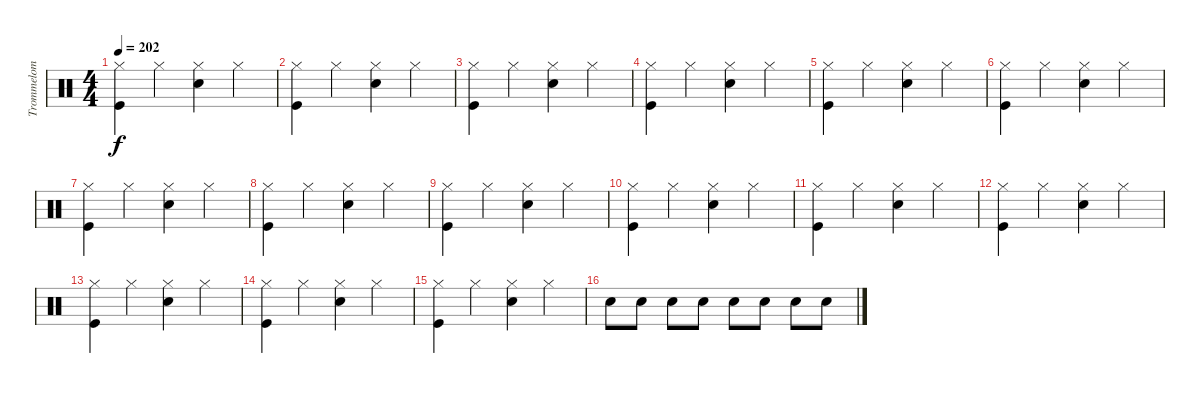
\track ("Trommelom" "Trommelom") {instrument percussion}
\staff {score}
\articulation defaults
\ts (4 4)
\tempo 202
\clef neutral
\ks c
("Kick (hit)" "Hi-Hat (closed)").4{dy f} "Hi-Hat (closed)".4 ("Electric Snare (hit)" "Hi-Hat (closed)").4 "Hi-Hat (closed)".4 |
("Kick (hit)" "Hi-Hat (closed)").4 "Hi-Hat (closed)".4 ("Electric Snare (hit)" "Hi-Hat (closed)").4 "Hi-Hat (closed)".4 |
("Kick (hit)" "Hi-Hat (closed)").4 "Hi-Hat (closed)".4 ("Electric Snare (hit)" "Hi-Hat (closed)").4 "Hi-Hat (closed)".4 |
("Kick (hit)" "Hi-Hat (closed)").4 "Hi-Hat (closed)".4 ("Electric Snare (hit)" "Hi-Hat (closed)").4 "Hi-Hat (closed)".4 |
("Kick (hit)" "Hi-Hat (closed)").4 "Hi-Hat (closed)".4 ("Electric Snare (hit)" "Hi-Hat (closed)").4 "Hi-Hat (closed)".4 |
("Kick (hit)" "Hi-Hat (closed)").4 "Hi-Hat (closed)".4 ("Electric Snare (hit)" "Hi-Hat (closed)").4 "Hi-Hat (closed)".4 |
("Kick (hit)" "Hi-Hat (closed)").4 "Hi-Hat (closed)".4 ("Electric Snare (hit)" "Hi-Hat (closed)").4 "Hi-Hat (closed)".4 |
("Kick (hit)" "Hi-Hat (closed)").4 "Hi-Hat (closed)".4 ("Electric Snare (hit)" "Hi-Hat (closed)").4 "Hi-Hat (closed)".4 |
("Kick (hit)" "Hi-Hat (closed)").4 "Hi-Hat (closed)".4 ("Electric Snare (hit)" "Hi-Hat (closed)").4 "Hi-Hat (closed)".4 |
("Kick (hit)" "Hi-Hat (closed)").4 "Hi-Hat (closed)".4 ("Electric Snare (hit)" "Hi-Hat (closed)").4 "Hi-Hat (closed)".4 |
("Kick (hit)" "Hi-Hat (closed)").4 "Hi-Hat (closed)".4 ("Electric Snare (hit)" "Hi-Hat (closed)").4 "Hi-Hat (closed)".4 |
("Kick (hit)" "Hi-Hat (closed)").4 "Hi-Hat (closed)".4 ("Electric Snare (hit)" "Hi-Hat (closed)").4 "Hi-Hat (closed)".4 |
("Kick (hit)" "Hi-Hat (closed)").4 "Hi-Hat (closed)".4 ("Electric Snare (hit)" "Hi-Hat (closed)").4 "Hi-Hat (closed)".4 |
("Kick (hit)" "Hi-Hat (closed)").4 "Hi-Hat (closed)".4 ("Electric Snare (hit)" "Hi-Hat (closed)").4 "Hi-Hat (closed)".4 |
("Kick (hit)" "Hi-Hat (closed)").4 "Hi-Hat (closed)".4 ("Electric Snare (hit)" "Hi-Hat (closed)").4 "Hi-Hat (closed)".4 |
"Electric Snare (hit)".8 "Electric Snare (hit)".8 "Electric Snare (hit)".8 "Electric Snare (hit)".8 "Snare (hit) 2".8 "Snare (hit) 2".8 "Snare (hit) 2".8 "Snare (hit) 2".8
